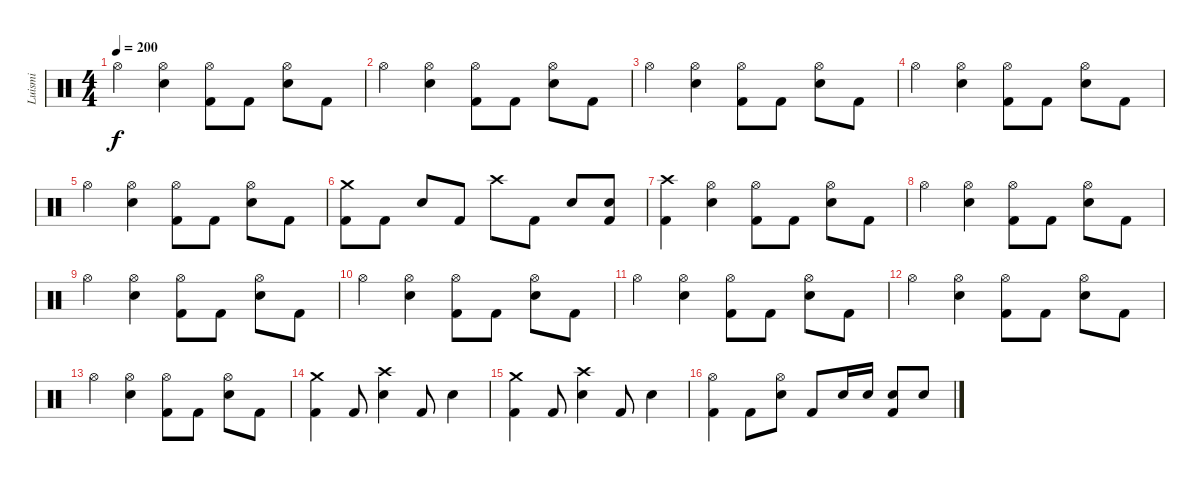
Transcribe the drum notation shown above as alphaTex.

\track ("Luismi" "Luismi") {instrument percussion}
\staff {score}
\articulation defaults
\ts (4 4)
\tempo 200
\clef neutral
\ks c "Hi-Hat (open)".4{dy f}
("Hi-Hat (open)" "Snare (hit) 2").4 ("Hi-Hat (open)" "Kick (hit) 2").8 "Kick (hit) 2".8 ("Hi-Hat (open)" "Snare (hit) 2").8 "Kick (hit) 2".8 |
"Hi-Hat (open)".4 ("Hi-Hat (open)" "Snare (hit) 2").4 ("Hi-Hat (open)" "Kick (hit) 2").8 "Kick (hit) 2".8 ("Hi-Hat (open)" "Snare (hit) 2").8 "Kick (hit) 2".8 |
"Hi-Hat (open)".4 ("Hi-Hat (open)" "Snare (hit) 2").4 ("Hi-Hat (open)" "Kick (hit) 2").8 "Kick (hit) 2".8 ("Hi-Hat (open)" "Snare (hit) 2").8 "Kick (hit) 2".8 |
"Hi-Hat (open)".4 ("Hi-Hat (open)" "Snare (hit) 2").4 ("Hi-Hat (open)" "Kick (hit) 2").8 "Kick (hit) 2".8 ("Hi-Hat (open)" "Snare (hit) 2").8 "Kick (hit) 2".8 |
"Hi-Hat (open)".4 ("Hi-Hat (open)" "Snare (hit) 2").4 ("Hi-Hat (open)" "Kick (hit) 2").8 "Kick (hit) 2".8 ("Hi-Hat (open)" "Snare (hit) 2").8 "Kick (hit) 2".8 |
("Crash medium (hit)" "Kick (hit) 2").8 "Kick (hit) 2".8 "Snare (hit) 2".8 "Kick (hit) 2".8 "Crash high (hit)".8 "Kick (hit) 2".8 "Snare (hit) 2".8 ("Snare (hit) 2" "Kick (hit) 2").8 |
("Crash high (hit)" "Kick (hit) 2").4 ("Hi-Hat (open)" "Snare (hit) 2").4 ("Hi-Hat (open)" "Kick (hit) 2").8 "Kick (hit) 2".8 ("Hi-Hat (open)" "Snare (hit) 2").8 "Kick (hit) 2".8 |
"Hi-Hat (open)".4 ("Hi-Hat (open)" "Snare (hit) 2").4 ("Hi-Hat (open)" "Kick (hit) 2").8 "Kick (hit) 2".8 ("Hi-Hat (open)" "Snare (hit) 2").8 "Kick (hit) 2".8 |
"Hi-Hat (open)".4 ("Hi-Hat (open)" "Snare (hit) 2").4 ("Hi-Hat (open)" "Kick (hit) 2").8 "Kick (hit) 2".8 ("Hi-Hat (open)" "Snare (hit) 2").8 "Kick (hit) 2".8 |
"Hi-Hat (open)".4 ("Hi-Hat (open)" "Snare (hit) 2").4 ("Hi-Hat (open)" "Kick (hit) 2").8 "Kick (hit) 2".8 ("Hi-Hat (open)" "Snare (hit) 2").8 "Kick (hit) 2".8 |
"Hi-Hat (open)".4 ("Hi-Hat (open)" "Snare (hit) 2").4 ("Hi-Hat (open)" "Kick (hit) 2").8 "Kick (hit) 2".8 ("Hi-Hat (open)" "Snare (hit) 2").8 "Kick (hit) 2".8 |
"Hi-Hat (open)".4 ("Hi-Hat (open)" "Snare (hit) 2").4 ("Hi-Hat (open)" "Kick (hit) 2").8 "Kick (hit) 2".8 ("Hi-Hat (open)" "Snare (hit) 2").8 "Kick (hit) 2".8 |
"Hi-Hat (open)".4 ("Hi-Hat (open)" "Snare (hit) 2").4 ("Hi-Hat (open)" "Kick (hit) 2").8 "Kick (hit) 2".8 ("Hi-Hat (open)" "Snare (hit) 2").8 "Kick (hit) 2".8 |
("Crash medium (hit)" "Kick (hit) 2").4 "Kick (hit) 2".8 ("Crash high (hit)" "Snare (hit) 2").4 "Kick (hit) 2".8 "Snare (hit) 2".4 |
("Crash medium (hit)" "Kick (hit) 2").4 "Kick (hit) 2".8 ("Crash high (hit)" "Snare (hit) 2").4 "Kick (hit) 2".8 "Snare (hit) 2".4 |
("Hi-Hat (open)" "Kick (hit) 2").4 "Kick (hit) 2".8 ("Hi-Hat (open)" "Snare (hit) 2").8 "Kick (hit) 2".8 "Snare (hit) 2".16 "Snare (hit) 2".16 ("Snare (hit) 2" "Kick (hit) 2").8 "Snare (hit) 2".8
